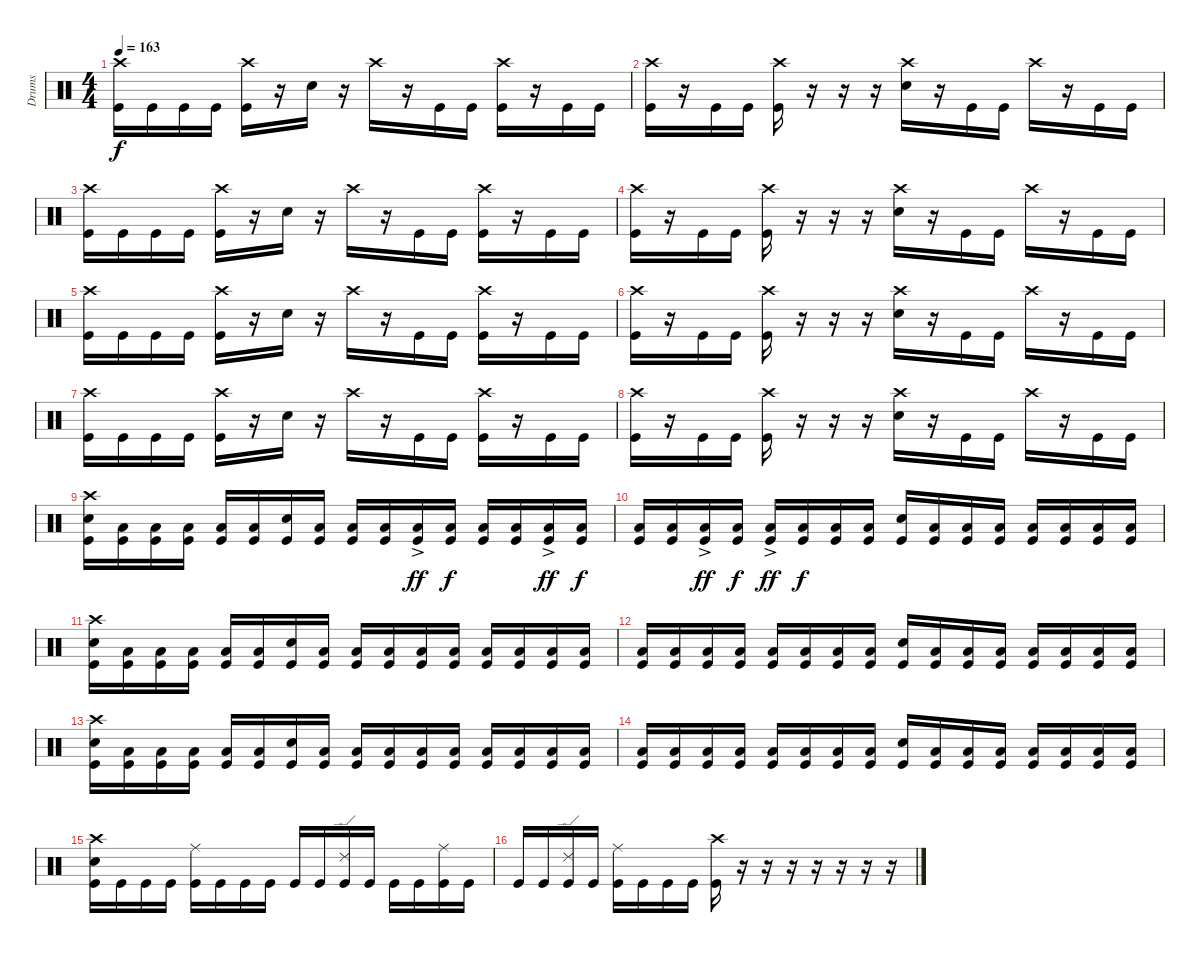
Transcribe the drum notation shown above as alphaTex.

\track ("Drums" "Drums") {instrument percussion}
\staff {score}
\articulation defaults
\ts (4 4)
\tempo 163
\clef neutral
\ks c
("Crash high (hit)" "Kick (hit)").16{dy f} "Kick (hit)".16 "Kick (hit)".16 "Kick (hit)".16 ("Crash high (hit)" "Kick (hit)").16 r.16 "Snare (hit) 2".16 r.16 "Crash high (hit)".16 r.16 "Kick (hit)".16 "Kick (hit)".16 ("Crash high (hit)" "Kick (hit)").16 r.16 "Kick (hit)".16 "Kick (hit)".16 |
("Crash high (hit)" "Kick (hit)").16 r.16 "Kick (hit)".16 "Kick (hit)".16 ("Crash high (hit)" "Kick (hit)").16 r.16 r.16 r.16 ("Crash high (hit)" "Snare (hit) 2").16 r.16 "Kick (hit)".16 "Kick (hit)".16 "Crash high (hit)".16 r.16 "Kick (hit)".16 "Kick (hit)".16 |
("Crash high (hit)" "Kick (hit)").16 "Kick (hit)".16 "Kick (hit)".16 "Kick (hit)".16 ("Crash high (hit)" "Kick (hit)").16 r.16 "Snare (hit) 2".16 r.16 "Crash high (hit)".16 r.16 "Kick (hit)".16 "Kick (hit)".16 ("Crash high (hit)" "Kick (hit)").16 r.16 "Kick (hit)".16 "Kick (hit)".16 |
("Crash high (hit)" "Kick (hit)").16 r.16 "Kick (hit)".16 "Kick (hit)".16 ("Crash high (hit)" "Kick (hit)").16 r.16 r.16 r.16 ("Crash high (hit)" "Snare (hit) 2").16 r.16 "Kick (hit)".16 "Kick (hit)".16 "Crash high (hit)".16 r.16 "Kick (hit)".16 "Kick (hit)".16 |
("Crash high (hit)" "Kick (hit)").16 "Kick (hit)".16 "Kick (hit)".16 "Kick (hit)".16 ("Crash high (hit)" "Kick (hit)").16 r.16 "Snare (hit) 2".16 r.16 "Crash high (hit)".16 r.16 "Kick (hit)".16 "Kick (hit)".16 ("Crash high (hit)" "Kick (hit)").16 r.16 "Kick (hit)".16 "Kick (hit)".16 |
("Crash high (hit)" "Kick (hit)").16 r.16 "Kick (hit)".16 "Kick (hit)".16 ("Crash high (hit)" "Kick (hit)").16 r.16 r.16 r.16 ("Crash high (hit)" "Snare (hit) 2").16 r.16 "Kick (hit)".16 "Kick (hit)".16 "Crash high (hit)".16 r.16 "Kick (hit)".16 "Kick (hit)".16 |
("Crash high (hit)" "Kick (hit)").16 "Kick (hit)".16 "Kick (hit)".16 "Kick (hit)".16 ("Crash high (hit)" "Kick (hit)").16 r.16 "Snare (hit) 2".16 r.16 "Crash high (hit)".16 r.16 "Kick (hit)".16 "Kick (hit)".16 ("Crash high (hit)" "Kick (hit)").16 r.16 "Kick (hit)".16 "Kick (hit)".16 |
("Crash high (hit)" "Kick (hit)").16 r.16 "Kick (hit)".16 "Kick (hit)".16 ("Crash high (hit)" "Kick (hit)").16 r.16 r.16 r.16 ("Crash high (hit)" "Snare (hit) 2").16 r.16 "Kick (hit)".16 "Kick (hit)".16 "Crash high (hit)".16 r.16 "Kick (hit)".16 "Kick (hit)".16 |
("Crash high (hit)" "Snare (hit) 2" "Kick (hit)").16 ("Low Tom (hit)" "Kick (hit)").16 ("Low Tom (hit)" "Kick (hit)").16 ("Low Tom (hit)" "Kick (hit)").16 ("Low Tom (hit)" "Kick (hit)").16 ("Low Tom (hit)" "Kick (hit)").16 ("Snare (hit) 2" "Kick (hit)").16 ("Low Tom (hit)" "Kick (hit)").16 ("Low Tom (hit)" "Kick (hit)").16 ("Low Tom (hit)" "Kick (hit)").16 ("Low Tom (hit)"{ac} "Kick (hit)"{ac}).16{dy ff} ("Low Tom (hit)" "Kick (hit)").16{dy f} ("Low Tom (hit)" "Kick (hit)").16 ("Low Tom (hit)" "Kick (hit)").16 ("Low Tom (hit)"{ac} "Kick (hit)"{ac}).16{dy ff} ("Low Tom (hit)" "Kick (hit)").16{dy f} |
("Low Tom (hit)" "Kick (hit)").16 ("Low Tom (hit)" "Kick (hit)").16 ("Low Tom (hit)"{ac} "Kick (hit)"{ac}).16{dy ff} ("Low Tom (hit)" "Kick (hit)").16{dy f} ("Low Tom (hit)"{ac} "Kick (hit)"{ac}).16{dy ff} ("Low Tom (hit)" "Kick (hit)").16{dy f} ("Low Tom (hit)" "Kick (hit)").16 ("Low Tom (hit)" "Kick (hit)").16 ("Snare (hit) 2" "Kick (hit)").16 ("Low Tom (hit)" "Kick (hit)").16 ("Low Tom (hit)" "Kick (hit)").16 ("Low Tom (hit)" "Kick (hit)").16 ("Low Tom (hit)" "Kick (hit)").16 ("Low Tom (hit)" "Kick (hit)").16 ("Low Tom (hit)" "Kick (hit)").16 ("Low Tom (hit)" "Kick (hit)").16 |
("Crash high (hit)" "Snare (hit) 2" "Kick (hit)").16 ("Low Tom (hit)" "Kick (hit)").16 ("Low Tom (hit)" "Kick (hit)").16 ("Low Tom (hit)" "Kick (hit)").16 ("Low Tom (hit)" "Kick (hit)").16 ("Low Tom (hit)" "Kick (hit)").16 ("Snare (hit) 2" "Kick (hit)").16 ("Low Tom (hit)" "Kick (hit)").16 ("Low Tom (hit)" "Kick (hit)").16 ("Low Tom (hit)" "Kick (hit)").16 ("Low Tom (hit)" "Kick (hit)").16 ("Low Tom (hit)" "Kick (hit)").16 ("Low Tom (hit)" "Kick (hit)").16 ("Low Tom (hit)" "Kick (hit)").16 ("Low Tom (hit)" "Kick (hit)").16 ("Low Tom (hit)" "Kick (hit)").16 |
("Low Tom (hit)" "Kick (hit)").16 ("Low Tom (hit)" "Kick (hit)").16 ("Low Tom (hit)" "Kick (hit)").16 ("Low Tom (hit)" "Kick (hit)").16 ("Low Tom (hit)" "Kick (hit)").16 ("Low Tom (hit)" "Kick (hit)").16 ("Low Tom (hit)" "Kick (hit)").16 ("Low Tom (hit)" "Kick (hit)").16 ("Snare (hit) 2" "Kick (hit)").16 ("Low Tom (hit)" "Kick (hit)").16 ("Low Tom (hit)" "Kick (hit)").16 ("Low Tom (hit)" "Kick (hit)").16 ("Low Tom (hit)" "Kick (hit)").16 ("Low Tom (hit)" "Kick (hit)").16 ("Low Tom (hit)" "Kick (hit)").16 ("Low Tom (hit)" "Kick (hit)").16 |
("Crash high (hit)" "Snare (hit) 2" "Kick (hit)").16 ("Low Tom (hit)" "Kick (hit)").16 ("Low Tom (hit)" "Kick (hit)").16 ("Low Tom (hit)" "Kick (hit)").16 ("Low Tom (hit)" "Kick (hit)").16 ("Low Tom (hit)" "Kick (hit)").16 ("Snare (hit) 2" "Kick (hit)").16 ("Low Tom (hit)" "Kick (hit)").16 ("Low Tom (hit)" "Kick (hit)").16 ("Low Tom (hit)" "Kick (hit)").16 ("Low Tom (hit)" "Kick (hit)").16 ("Low Tom (hit)" "Kick (hit)").16 ("Low Tom (hit)" "Kick (hit)").16 ("Low Tom (hit)" "Kick (hit)").16 ("Low Tom (hit)" "Kick (hit)").16 ("Low Tom (hit)" "Kick (hit)").16 |
("Low Tom (hit)" "Kick (hit)").16 ("Low Tom (hit)" "Kick (hit)").16 ("Low Tom (hit)" "Kick (hit)").16 ("Low Tom (hit)" "Kick (hit)").16 ("Low Tom (hit)" "Kick (hit)").16 ("Low Tom (hit)" "Kick (hit)").16 ("Low Tom (hit)" "Kick (hit)").16 ("Low Tom (hit)" "Kick (hit)").16 ("Snare (hit) 2" "Kick (hit)").16 ("Low Tom (hit)" "Kick (hit)").16 ("Low Tom (hit)" "Kick (hit)").16 ("Low Tom (hit)" "Kick (hit)").16 ("Low Tom (hit)" "Kick (hit)").16 ("Low Tom (hit)" "Kick (hit)").16 ("Low Tom (hit)" "Kick (hit)").16 ("Low Tom (hit)" "Kick (hit)").16 |
("Crash high (hit)" "Snare (hit) 2" "Kick (hit)").16 "Kick (hit)".16 "Kick (hit)".16 "Kick (hit)".16 ("Ride (middle)" "Kick (hit)").16 "Kick (hit)".16 "Kick (hit)".16 "Kick (hit)".16 "Kick (hit)".16 "Kick (hit)".16 ("Ride (edge) 2" "Kick (hit)").16 "Kick (hit)".16 "Kick (hit)".16 "Kick (hit)".16 ("Ride (middle)" "Kick (hit)").16 "Kick (hit)".16 |
"Kick (hit)".16 "Kick (hit)".16 ("Ride (edge) 2" "Kick (hit)").16 "Kick (hit)".16 ("Ride (middle)" "Kick (hit)").16 "Kick (hit)".16 "Kick (hit)".16 "Kick (hit)".16 ("Crash high (hit)" "Kick (hit)").16 r.16 r.16 r.16 r.16 r.16 r.16 r.16
